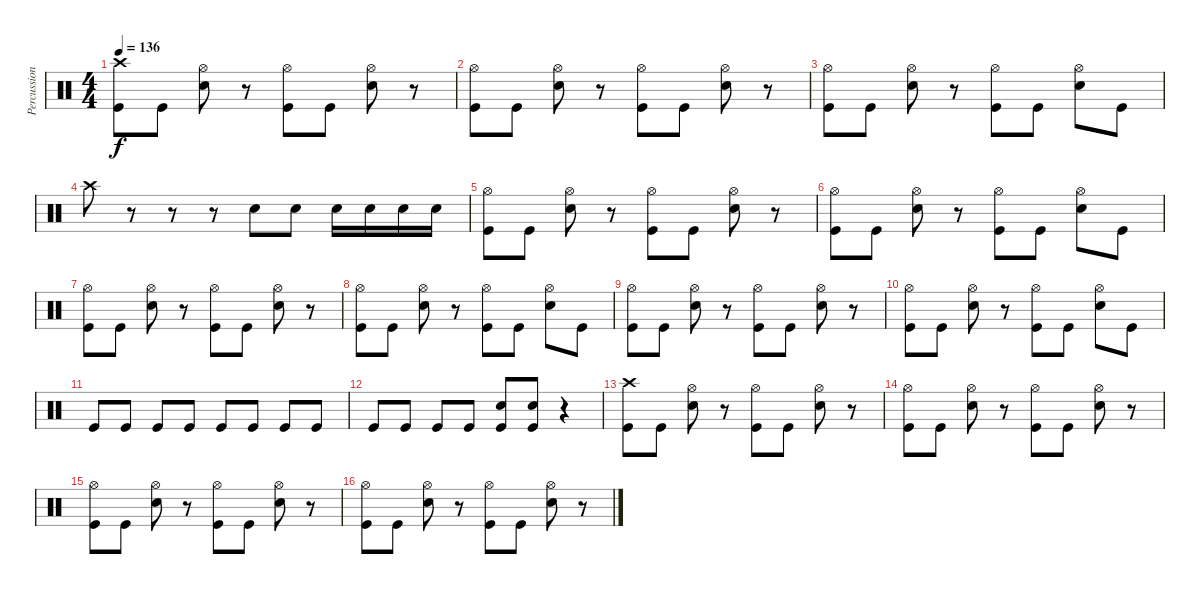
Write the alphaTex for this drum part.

\track ("Percussion" "Percussion") {instrument percussion}
\staff {score}
\articulation defaults
\ts (4 4)
\tempo 136
\clef neutral
\ks c
("Crash high (hit)" "Kick (hit)").8{dy f} "Kick (hit)".8 ("Hi-Hat (open)" "Snare (hit) 2").8 r.8 ("Hi-Hat (open)" "Kick (hit)").8 "Kick (hit)".8 ("Hi-Hat (open)" "Snare (hit) 2").8 r.8 |
("Hi-Hat (open)" "Kick (hit)").8 "Kick (hit)".8 ("Hi-Hat (open)" "Snare (hit) 2").8 r.8 ("Hi-Hat (open)" "Kick (hit)").8 "Kick (hit)".8 ("Hi-Hat (open)" "Snare (hit) 2").8 r.8 |
("Hi-Hat (open)" "Kick (hit)").8 "Kick (hit)".8 ("Hi-Hat (open)" "Snare (hit) 2").8 r.8 ("Hi-Hat (open)" "Kick (hit)").8 "Kick (hit)".8 ("Hi-Hat (open)" "Snare (hit) 2").8 "Kick (hit)".8 |
"Crash high (hit)".8 r.8 r.8 r.8 "Snare (hit) 2".8 "Snare (hit) 2".8 "Snare (hit) 2".16 "Snare (hit) 2".16 "Snare (hit) 2".16 "Snare (hit) 2".16 |
("Hi-Hat (open)" "Kick (hit)").8 "Kick (hit)".8 ("Hi-Hat (open)" "Snare (hit) 2").8 r.8 ("Hi-Hat (open)" "Kick (hit)").8 "Kick (hit)".8 ("Hi-Hat (open)" "Snare (hit) 2").8 r.8 |
("Hi-Hat (open)" "Kick (hit)").8 "Kick (hit)".8 ("Hi-Hat (open)" "Snare (hit) 2").8 r.8 ("Hi-Hat (open)" "Kick (hit)").8 "Kick (hit)".8 ("Hi-Hat (open)" "Snare (hit) 2").8 "Kick (hit)".8 |
("Hi-Hat (open)" "Kick (hit)").8 "Kick (hit)".8 ("Hi-Hat (open)" "Snare (hit) 2").8 r.8 ("Hi-Hat (open)" "Kick (hit)").8 "Kick (hit)".8 ("Hi-Hat (open)" "Snare (hit) 2").8 r.8 |
("Hi-Hat (open)" "Kick (hit)").8 "Kick (hit)".8 ("Hi-Hat (open)" "Snare (hit) 2").8 r.8 ("Hi-Hat (open)" "Kick (hit)").8 "Kick (hit)".8 ("Hi-Hat (open)" "Snare (hit) 2").8 "Kick (hit)".8 |
("Hi-Hat (open)" "Kick (hit)").8 "Kick (hit)".8 ("Hi-Hat (open)" "Snare (hit) 2").8 r.8 ("Hi-Hat (open)" "Kick (hit)").8 "Kick (hit)".8 ("Hi-Hat (open)" "Snare (hit) 2").8 r.8 |
("Hi-Hat (open)" "Kick (hit)").8 "Kick (hit)".8 ("Hi-Hat (open)" "Snare (hit) 2").8 r.8 ("Hi-Hat (open)" "Kick (hit)").8 "Kick (hit)".8 ("Hi-Hat (open)" "Snare (hit) 2").8 "Kick (hit)".8 |
"Kick (hit)".8 "Kick (hit)".8 "Kick (hit)".8 "Kick (hit)".8 "Kick (hit)".8 "Kick (hit)".8 "Kick (hit)".8 "Kick (hit)".8 |
"Kick (hit)".8 "Kick (hit)".8 "Kick (hit)".8 "Kick (hit)".8 ("Snare (hit) 2" "Kick (hit)").8 ("Snare (hit) 2" "Kick (hit)").8 r.4 |
("Crash high (hit)" "Kick (hit)").8 "Kick (hit)".8 ("Hi-Hat (open)" "Snare (hit) 2").8 r.8 ("Hi-Hat (open)" "Kick (hit)").8 "Kick (hit)".8 ("Hi-Hat (open)" "Snare (hit) 2").8 r.8 |
("Hi-Hat (open)" "Kick (hit)").8 "Kick (hit)".8 ("Hi-Hat (open)" "Snare (hit) 2").8 r.8 ("Hi-Hat (open)" "Kick (hit)").8 "Kick (hit)".8 ("Hi-Hat (open)" "Snare (hit) 2").8 r.8 |
("Hi-Hat (open)" "Kick (hit)").8 "Kick (hit)".8 ("Hi-Hat (open)" "Snare (hit) 2").8 r.8 ("Hi-Hat (open)" "Kick (hit)").8 "Kick (hit)".8 ("Hi-Hat (open)" "Snare (hit) 2").8 r.8 |
("Hi-Hat (open)" "Kick (hit)").8 "Kick (hit)".8 ("Hi-Hat (open)" "Snare (hit) 2").8 r.8 ("Hi-Hat (open)" "Kick (hit)").8 "Kick (hit)".8 ("Hi-Hat (open)" "Snare (hit) 2").8 r.8
